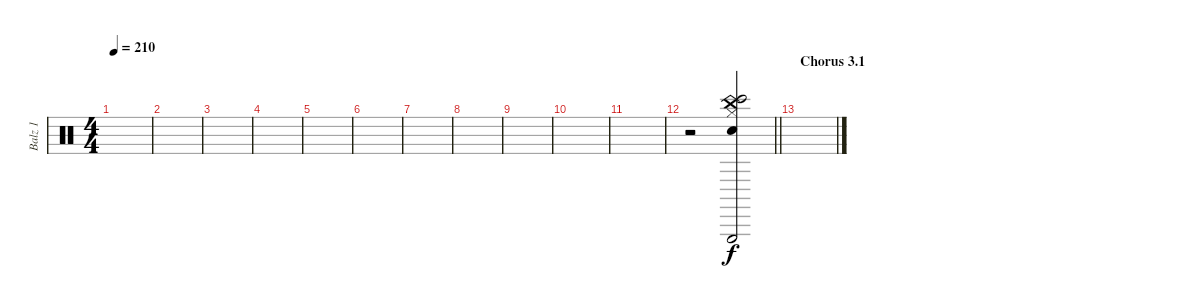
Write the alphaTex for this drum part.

\track ("Balz 1" "Balz 1") {instrument percussion}
\staff {score}
\articulation defaults
\ts (4 4)
\tempo 210
\clef neutral
\ks c
|
|
|
|
|
|
|
|
|
|
|
\barLineRight lightlight
r.2 ("Bongo High (hit)" "China (hit)" "Hi-Hat (closed)" "Metronome (bell)" "Triangle (hit)").2{dy f} |
\section ("" "Chorus 3.1")
